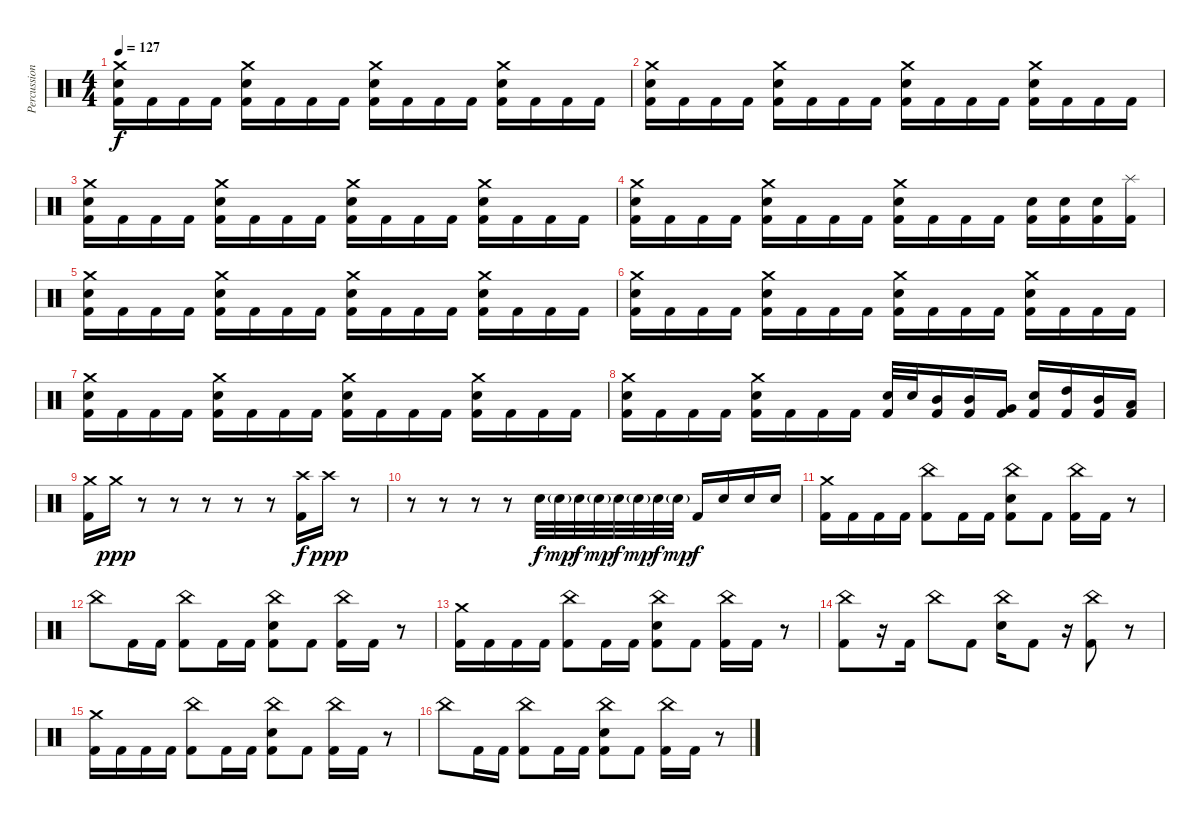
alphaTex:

\track ("Percussion" "Percussion") {instrument percussion}
\staff {score}
\articulation defaults
\ts (4 4)
\tempo 127
\clef neutral
\ks c
("Crash medium (hit)" "Electric Snare (hit)" "Kick (hit) 2").16{dy f} "Kick (hit) 2".16 "Kick (hit) 2".16 "Kick (hit) 2".16 ("Crash medium (hit)" "Electric Snare (hit)" "Kick (hit) 2").16 "Kick (hit) 2".16 "Kick (hit) 2".16 "Kick (hit) 2".16 ("Crash medium (hit)" "Electric Snare (hit)" "Kick (hit) 2").16 "Kick (hit) 2".16 "Kick (hit) 2".16 "Kick (hit) 2".16 ("Crash medium (hit)" "Electric Snare (hit)" "Kick (hit) 2").16 "Kick (hit) 2".16 "Kick (hit) 2".16 "Kick (hit) 2".16 |
("Crash medium (hit)" "Electric Snare (hit)" "Kick (hit) 2").16 "Kick (hit) 2".16 "Kick (hit) 2".16 "Kick (hit) 2".16 ("Crash medium (hit)" "Electric Snare (hit)" "Kick (hit) 2").16 "Kick (hit) 2".16 "Kick (hit) 2".16 "Kick (hit) 2".16 ("Crash medium (hit)" "Electric Snare (hit)" "Kick (hit) 2").16 "Kick (hit) 2".16 "Kick (hit) 2".16 "Kick (hit) 2".16 ("Crash medium (hit)" "Electric Snare (hit)" "Kick (hit) 2").16 "Kick (hit) 2".16 "Kick (hit) 2".16 "Kick (hit) 2".16 |
("Crash medium (hit)" "Electric Snare (hit)" "Kick (hit) 2").16 "Kick (hit) 2".16 "Kick (hit) 2".16 "Kick (hit) 2".16 ("Crash medium (hit)" "Electric Snare (hit)" "Kick (hit) 2").16 "Kick (hit) 2".16 "Kick (hit) 2".16 "Kick (hit) 2".16 ("Crash medium (hit)" "Electric Snare (hit)" "Kick (hit) 2").16 "Kick (hit) 2".16 "Kick (hit) 2".16 "Kick (hit) 2".16 ("Crash medium (hit)" "Electric Snare (hit)" "Kick (hit) 2").16 "Kick (hit) 2".16 "Kick (hit) 2".16 "Kick (hit) 2".16 |
("Crash medium (hit)" "Electric Snare (hit)" "Kick (hit) 2").16 "Kick (hit) 2".16 "Kick (hit) 2".16 "Kick (hit) 2".16 ("Crash medium (hit)" "Electric Snare (hit)" "Kick (hit) 2").16 "Kick (hit) 2".16 "Kick (hit) 2".16 "Kick (hit) 2".16 ("Crash medium (hit)" "Electric Snare (hit)" "Kick (hit) 2").16 "Kick (hit) 2".16 "Kick (hit) 2".16 "Kick (hit) 2".16 ("Electric Snare (hit)" "Kick (hit) 2").16 ("Electric Snare (hit)" "Kick (hit) 2").16 ("Electric Snare (hit)" "Kick (hit) 2").16 ("Splash (hit)" "Kick (hit) 2").16 |
("Crash medium (hit)" "Electric Snare (hit)" "Kick (hit) 2").16 "Kick (hit) 2".16 "Kick (hit) 2".16 "Kick (hit) 2".16 ("Crash medium (hit)" "Electric Snare (hit)" "Kick (hit) 2").16 "Kick (hit) 2".16 "Kick (hit) 2".16 "Kick (hit) 2".16 ("Crash medium (hit)" "Electric Snare (hit)" "Kick (hit) 2").16 "Kick (hit) 2".16 "Kick (hit) 2".16 "Kick (hit) 2".16 ("Crash medium (hit)" "Electric Snare (hit)" "Kick (hit) 2").16 "Kick (hit) 2".16 "Kick (hit) 2".16 "Kick (hit) 2".16 |
("Crash medium (hit)" "Electric Snare (hit)" "Kick (hit) 2").16 "Kick (hit) 2".16 "Kick (hit) 2".16 "Kick (hit) 2".16 ("Crash medium (hit)" "Electric Snare (hit)" "Kick (hit) 2").16 "Kick (hit) 2".16 "Kick (hit) 2".16 "Kick (hit) 2".16 ("Crash medium (hit)" "Electric Snare (hit)" "Kick (hit) 2").16 "Kick (hit) 2".16 "Kick (hit) 2".16 "Kick (hit) 2".16 ("Crash medium (hit)" "Electric Snare (hit)" "Kick (hit) 2").16 "Kick (hit) 2".16 "Kick (hit) 2".16 "Kick (hit) 2".16 |
("Crash medium (hit)" "Electric Snare (hit)" "Kick (hit) 2").16 "Kick (hit) 2".16 "Kick (hit) 2".16 "Kick (hit) 2".16 ("Crash medium (hit)" "Electric Snare (hit)" "Kick (hit) 2").16 "Kick (hit) 2".16 "Kick (hit) 2".16 "Kick (hit) 2".16 ("Crash medium (hit)" "Electric Snare (hit)" "Kick (hit) 2").16 "Kick (hit) 2".16 "Kick (hit) 2".16 "Kick (hit) 2".16 ("Crash medium (hit)" "Electric Snare (hit)" "Kick (hit) 2").16 "Kick (hit) 2".16 "Kick (hit) 2".16 "Kick (hit) 2".16 |
("Crash medium (hit)" "Electric Snare (hit)" "Kick (hit) 2").16 "Kick (hit) 2".16 "Kick (hit) 2".16 "Kick (hit) 2".16 ("Crash medium (hit)" "Electric Snare (hit)" "Kick (hit) 2").16 "Kick (hit) 2".16 "Kick (hit) 2".16 "Kick (hit) 2".16 ("Electric Snare (hit)" "Kick (hit) 2").32 "Electric Snare (hit)".32 ("Mid Tom (hit)" "Kick (hit) 2").16 ("Mid Tom (hit)" "Kick (hit) 2").16 ("Very Low Tom (hit)" "Kick (hit) 2").16 ("Electric Snare (hit)" "Kick (hit) 2").16 ("High Tom (hit)" "Kick (hit) 2").16 ("Mid Tom (hit)" "Kick (hit) 2").16 ("Low Tom (hit)" "Kick (hit) 2").16 |
("Crash medium (hit)" "Kick (hit) 2").16 "Crash medium (hit)".16{dy ppp} r.8 r.8 r.8 r.8 r.8 ("Crash high (hit)" "Kick (hit) 2").16{dy f} "Crash high (hit)".16{dy ppp} r.8 |
r.8 r.8 r.8 r.8 "Electric Snare (hit)".32{dy f} "Electric Snare (hit)"{g}.32{dy mp} "Electric Snare (hit)".32{dy f} "Electric Snare (hit)"{g}.32{dy mp} "Electric Snare (hit)".32{dy f} "Electric Snare (hit)"{g}.32{dy mp} "Electric Snare (hit)".32{dy f} "Electric Snare (hit)"{g}.32{dy mp} "Kick (hit) 2".16{dy f} "Electric Snare (hit)".16 "Electric Snare (hit)".16 "Electric Snare (hit)".16 |
("Crash medium (hit)" "Kick (hit) 2").16 "Kick (hit) 2".16 "Kick (hit) 2".16 "Kick (hit) 2".16 ("China (hit)" "Kick (hit) 2").8 "Kick (hit) 2".16 "Kick (hit) 2".16 ("China (hit)" "Electric Snare (hit)" "Kick (hit) 2").8 "Kick (hit) 2".8 ("China (hit)" "Kick (hit) 2").16 "Kick (hit) 2".16 r.8 |
"China (hit)".8 "Kick (hit) 2".16 "Kick (hit) 2".16 ("China (hit)" "Kick (hit) 2").8 "Kick (hit) 2".16 "Kick (hit) 2".16 ("China (hit)" "Electric Snare (hit)" "Kick (hit) 2").8 "Kick (hit) 2".8 ("China (hit)" "Kick (hit) 2").16 "Kick (hit) 2".16 r.8 |
("Crash medium (hit)" "Kick (hit) 2").16 "Kick (hit) 2".16 "Kick (hit) 2".16 "Kick (hit) 2".16 ("China (hit)" "Kick (hit) 2").8 "Kick (hit) 2".16 "Kick (hit) 2".16 ("China (hit)" "Electric Snare (hit)" "Kick (hit) 2").8 "Kick (hit) 2".8 ("China (hit)" "Kick (hit) 2").16 "Kick (hit) 2".16 r.8 |
("China (hit)" "Kick (hit) 2").8 r.16 "Kick (hit) 2".16 "China (hit)".8 "Kick (hit) 2".8 ("China (hit)" "Electric Snare (hit)").16 "Kick (hit) 2".8 r.16 ("China (hit)" "Kick (hit) 2").8 r.8 |
("Crash medium (hit)" "Kick (hit) 2").16 "Kick (hit) 2".16 "Kick (hit) 2".16 "Kick (hit) 2".16 ("China (hit)" "Kick (hit) 2").8 "Kick (hit) 2".16 "Kick (hit) 2".16 ("China (hit)" "Electric Snare (hit)" "Kick (hit) 2").8 "Kick (hit) 2".8 ("China (hit)" "Kick (hit) 2").16 "Kick (hit) 2".16 r.8 |
"China (hit)".8 "Kick (hit) 2".16 "Kick (hit) 2".16 ("China (hit)" "Kick (hit) 2").8 "Kick (hit) 2".16 "Kick (hit) 2".16 ("China (hit)" "Electric Snare (hit)" "Kick (hit) 2").8 "Kick (hit) 2".8 ("China (hit)" "Kick (hit) 2").16 "Kick (hit) 2".16 r.8
